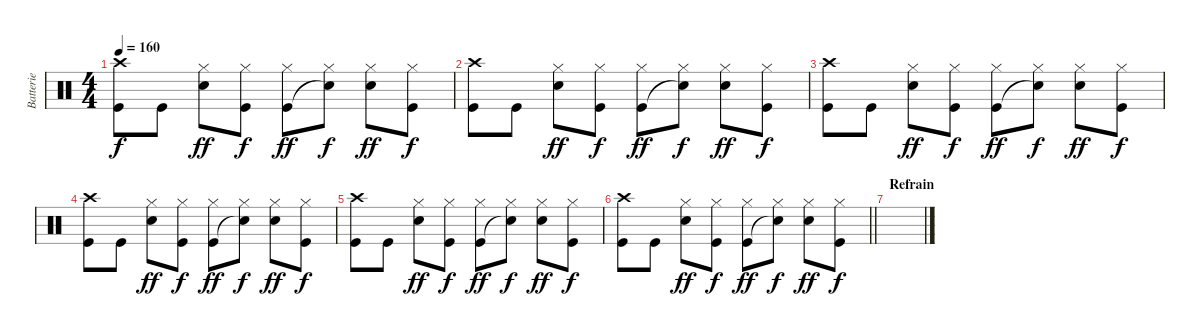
\track ("Batterie" "Batterie") {instrument percussion}
\staff {score}
\articulation defaults
\ts (4 4)
\tempo 160
\clef neutral
\ks c
("Crash high (hit)" "Kick (hit)").8{dy f} "Kick (hit)".8 ("Hi-Hat (closed)" "Snare (hit) 2").8{dy ff} ("Hi-Hat (closed)" "Kick (hit)").8{dy f} ("Hi-Hat (closed)" "Kick (hit)").8{dy ff} ("Hi-Hat (closed)" "Snare (hit)"{t}).8{dy f} ("Hi-Hat (closed)" "Snare (hit) 2").8{dy ff} ("Hi-Hat (closed)" "Kick (hit)").8{dy f} |
("Crash high (hit)" "Kick (hit)").8 "Kick (hit)".8 ("Hi-Hat (closed)" "Snare (hit) 2").8{dy ff} ("Hi-Hat (closed)" "Kick (hit)").8{dy f} ("Hi-Hat (closed)" "Kick (hit)").8{dy ff} ("Hi-Hat (closed)" "Snare (hit)"{t}).8{dy f} ("Hi-Hat (closed)" "Snare (hit) 2").8{dy ff} ("Hi-Hat (closed)" "Kick (hit)").8{dy f} |
("Crash high (hit)" "Kick (hit)").8 "Kick (hit)".8 ("Hi-Hat (closed)" "Snare (hit) 2").8{dy ff} ("Hi-Hat (closed)" "Kick (hit)").8{dy f} ("Hi-Hat (closed)" "Kick (hit)").8{dy ff} ("Hi-Hat (closed)" "Snare (hit)"{t}).8{dy f} ("Hi-Hat (closed)" "Snare (hit) 2").8{dy ff} ("Hi-Hat (closed)" "Kick (hit)").8{dy f} |
("Crash high (hit)" "Kick (hit)").8 "Kick (hit)".8 ("Hi-Hat (closed)" "Snare (hit) 2").8{dy ff} ("Hi-Hat (closed)" "Kick (hit)").8{dy f} ("Hi-Hat (closed)" "Kick (hit)").8{dy ff} ("Hi-Hat (closed)" "Snare (hit)"{t}).8{dy f} ("Hi-Hat (closed)" "Snare (hit) 2").8{dy ff} ("Hi-Hat (closed)" "Kick (hit)").8{dy f} |
("Crash high (hit)" "Kick (hit)").8 "Kick (hit)".8 ("Hi-Hat (closed)" "Snare (hit) 2").8{dy ff} ("Hi-Hat (closed)" "Kick (hit)").8{dy f} ("Hi-Hat (closed)" "Kick (hit)").8{dy ff} ("Hi-Hat (closed)" "Snare (hit)"{t}).8{dy f} ("Hi-Hat (closed)" "Snare (hit) 2").8{dy ff} ("Hi-Hat (closed)" "Kick (hit)").8{dy f} |
\barLineRight lightlight
("Crash high (hit)" "Kick (hit)").8 "Kick (hit)".8 ("Hi-Hat (closed)" "Snare (hit) 2").8{dy ff} ("Hi-Hat (closed)" "Kick (hit)").8{dy f} ("Hi-Hat (closed)" "Kick (hit)").8{dy ff} ("Hi-Hat (closed)" "Snare (hit)"{t}).8{dy f} ("Hi-Hat (closed)" "Snare (hit) 2").8{dy ff} ("Hi-Hat (closed)" "Kick (hit)").8{dy f} |
\section ("" "Refrain")
